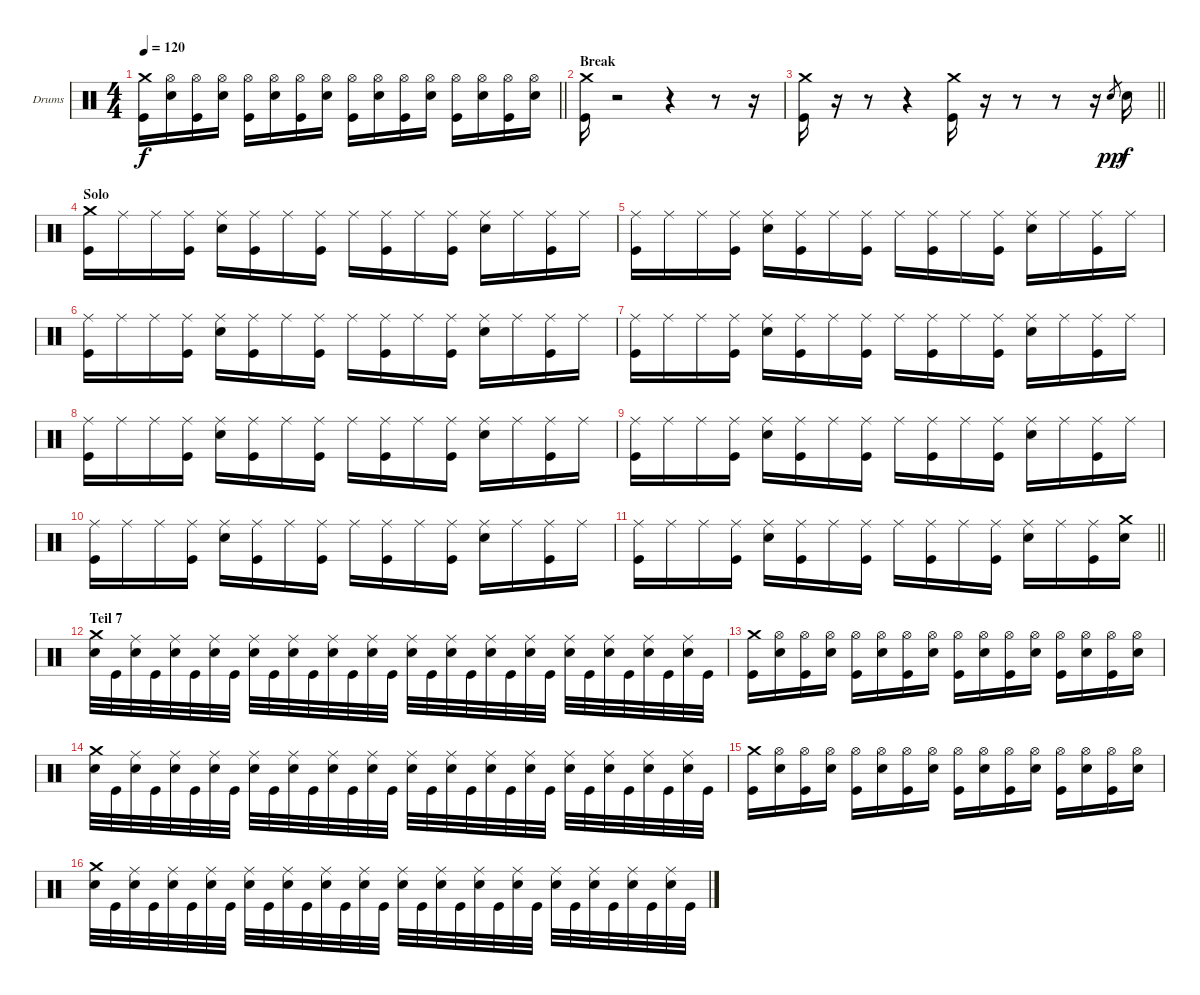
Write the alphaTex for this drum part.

\bracketExtendMode groupsimilarinstruments
\firstSystemTrackNameOrientation horizontal
\otherSystemsTrackNameOrientation horizontal
\track ("Drumkit" "Drums") {instrument percussion}
\staff {score}
\articulation defaults
\ts (4 4)
\tempo 120
\clef neutral
\barLineRight lightlight
\ks c
("Crash medium (hit)" "Kick (hit)").16{dy f} ("Hi-Hat (open)" "Snare (hit) 2").16 ("Hi-Hat (open)" "Kick (hit)").16 ("Hi-Hat (open)" "Snare (hit) 2").16 ("Hi-Hat (open)" "Kick (hit)").16 ("Hi-Hat (open)" "Snare (hit) 2").16 ("Hi-Hat (open)" "Kick (hit)").16 ("Hi-Hat (open)" "Snare (hit) 2").16 ("Hi-Hat (open)" "Kick (hit)").16 ("Hi-Hat (open)" "Snare (hit) 2").16 ("Hi-Hat (open)" "Kick (hit)").16 ("Hi-Hat (open)" "Snare (hit) 2").16 ("Hi-Hat (open)" "Kick (hit)").16 ("Hi-Hat (open)" "Snare (hit) 2").16 ("Hi-Hat (open)" "Kick (hit)").16 ("Hi-Hat (open)" "Snare (hit) 2").16 |
\section ("" "Break")
("Crash medium (hit)" "Kick (hit)").16 r.2 r.4 r.8 r.16 |
\barLineRight lightlight
("Crash medium (hit)" "Kick (hit)").16 r.16 r.8 r.4 ("Crash medium (hit)" "Kick (hit)").16 r.16 r.8 r.8 r.16 "Snare (hit) 2".8{gr dy pp} "Snare (hit) 2".16{dy f} |
\section ("" "Solo")
("Crash medium (hit)" "Kick (hit)").16 "Ride (middle)".16 "Ride (middle)".16 ("Ride (middle)" "Kick (hit)").16 ("Ride (middle)" "Snare (hit) 2").16 ("Ride (middle)" "Kick (hit)").16 "Ride (middle)".16 ("Ride (middle)" "Kick (hit)").16 "Ride (middle)".16 ("Ride (middle)" "Kick (hit)").16 "Ride (middle)".16 ("Ride (middle)" "Kick (hit)").16 ("Ride (middle)" "Snare (hit) 2").16 "Ride (middle)".16 ("Ride (middle)" "Kick (hit)").16 "Ride (middle)".16 |
("Ride (middle)" "Kick (hit)").16 "Ride (middle)".16 "Ride (middle)".16 ("Ride (middle)" "Kick (hit)").16 ("Ride (middle)" "Snare (hit) 2").16 ("Ride (middle)" "Kick (hit)").16 "Ride (middle)".16 ("Ride (middle)" "Kick (hit)").16 "Ride (middle)".16 ("Ride (middle)" "Kick (hit)").16 "Ride (middle)".16 ("Ride (middle)" "Kick (hit)").16 ("Ride (middle)" "Snare (hit) 2").16 "Ride (middle)".16 ("Ride (middle)" "Kick (hit)").16 "Ride (middle)".16 |
("Ride (middle)" "Kick (hit)").16 "Ride (middle)".16 "Ride (middle)".16 ("Ride (middle)" "Kick (hit)").16 ("Ride (middle)" "Snare (hit) 2").16 ("Ride (middle)" "Kick (hit)").16 "Ride (middle)".16 ("Ride (middle)" "Kick (hit)").16 "Ride (middle)".16 ("Ride (middle)" "Kick (hit)").16 "Ride (middle)".16 ("Ride (middle)" "Kick (hit)").16 ("Ride (middle)" "Snare (hit) 2").16 "Ride (middle)".16 ("Ride (middle)" "Kick (hit)").16 "Ride (middle)".16 |
("Ride (middle)" "Kick (hit)").16 "Ride (middle)".16 "Ride (middle)".16 ("Ride (middle)" "Kick (hit)").16 ("Ride (middle)" "Snare (hit) 2").16 ("Ride (middle)" "Kick (hit)").16 "Ride (middle)".16 ("Ride (middle)" "Kick (hit)").16 "Ride (middle)".16 ("Ride (middle)" "Kick (hit)").16 "Ride (middle)".16 ("Ride (middle)" "Kick (hit)").16 ("Ride (middle)" "Snare (hit) 2").16 "Ride (middle)".16 ("Ride (middle)" "Kick (hit)").16 "Ride (middle)".16 |
("Ride (middle)" "Kick (hit)").16 "Ride (middle)".16 "Ride (middle)".16 ("Ride (middle)" "Kick (hit)").16 ("Ride (middle)" "Snare (hit) 2").16 ("Ride (middle)" "Kick (hit)").16 "Ride (middle)".16 ("Ride (middle)" "Kick (hit)").16 "Ride (middle)".16 ("Ride (middle)" "Kick (hit)").16 "Ride (middle)".16 ("Ride (middle)" "Kick (hit)").16 ("Ride (middle)" "Snare (hit) 2").16 "Ride (middle)".16 ("Ride (middle)" "Kick (hit)").16 "Ride (middle)".16 |
("Ride (middle)" "Kick (hit)").16 "Ride (middle)".16 "Ride (middle)".16 ("Ride (middle)" "Kick (hit)").16 ("Ride (middle)" "Snare (hit) 2").16 ("Ride (middle)" "Kick (hit)").16 "Ride (middle)".16 ("Ride (middle)" "Kick (hit)").16 "Ride (middle)".16 ("Ride (middle)" "Kick (hit)").16 "Ride (middle)".16 ("Ride (middle)" "Kick (hit)").16 ("Ride (middle)" "Snare (hit) 2").16 "Ride (middle)".16 ("Ride (middle)" "Kick (hit)").16 "Ride (middle)".16 |
("Ride (middle)" "Kick (hit)").16 "Ride (middle)".16 "Ride (middle)".16 ("Ride (middle)" "Kick (hit)").16 ("Ride (middle)" "Snare (hit) 2").16 ("Ride (middle)" "Kick (hit)").16 "Ride (middle)".16 ("Ride (middle)" "Kick (hit)").16 "Ride (middle)".16 ("Ride (middle)" "Kick (hit)").16 "Ride (middle)".16 ("Ride (middle)" "Kick (hit)").16 ("Ride (middle)" "Snare (hit) 2").16 "Ride (middle)".16 ("Ride (middle)" "Kick (hit)").16 "Ride (middle)".16 |
\barLineRight lightlight
("Ride (middle)" "Kick (hit)").16 "Ride (middle)".16 "Ride (middle)".16 ("Ride (middle)" "Kick (hit)").16 ("Ride (middle)" "Snare (hit) 2").16 ("Ride (middle)" "Kick (hit)").16 "Ride (middle)".16 ("Ride (middle)" "Kick (hit)").16 "Ride (middle)".16 ("Ride (middle)" "Kick (hit)").16 "Ride (middle)".16 ("Ride (middle)" "Kick (hit)").16 ("Ride (middle)" "Snare (hit) 2").16 "Ride (middle)".16 ("Ride (middle)" "Kick (hit)").16 ("Crash medium (hit)" "Snare (hit) 2").16 |
\section ("" "Teil 7")
("Crash medium (hit)" "Snare (hit) 2").32 "Kick (hit)".32 ("Ride (middle)" "Snare (hit) 2").32 "Kick (hit)".32 ("Ride (middle)" "Snare (hit) 2").32 "Kick (hit)".32 ("Ride (middle)" "Snare (hit) 2").32 "Kick (hit)".32 ("Ride (middle)" "Snare (hit) 2").32 "Kick (hit)".32 ("Ride (middle)" "Snare (hit) 2").32 "Kick (hit)".32 ("Ride (middle)" "Snare (hit) 2").32 "Kick (hit)".32 ("Ride (middle)" "Snare (hit) 2").32 "Kick (hit)".32 ("Ride (middle)" "Snare (hit) 2").32 "Kick (hit)".32 ("Ride (middle)" "Snare (hit) 2").32 "Kick (hit)".32 ("Ride (middle)" "Snare (hit) 2").32 "Kick (hit)".32 ("Ride (middle)" "Snare (hit) 2").32 "Kick (hit)".32 ("Ride (middle)" "Snare (hit) 2").32 "Kick (hit)".32 ("Ride (middle)" "Snare (hit) 2").32 "Kick (hit)".32 ("Ride (middle)" "Snare (hit) 2").32 "Kick (hit)".32 ("Ride (middle)" "Snare (hit) 2").32 "Kick (hit)".32 |
("Crash medium (hit)" "Kick (hit)").16 ("Hi-Hat (open)" "Snare (hit) 2").16 ("Hi-Hat (open)" "Kick (hit)").16 ("Hi-Hat (open)" "Snare (hit) 2").16 ("Hi-Hat (open)" "Kick (hit)").16 ("Hi-Hat (open)" "Snare (hit) 2").16 ("Hi-Hat (open)" "Kick (hit)").16 ("Hi-Hat (open)" "Snare (hit) 2").16 ("Hi-Hat (open)" "Kick (hit)").16 ("Hi-Hat (open)" "Snare (hit) 2").16 ("Hi-Hat (open)" "Kick (hit)").16 ("Hi-Hat (open)" "Snare (hit) 2").16 ("Hi-Hat (open)" "Kick (hit)").16 ("Hi-Hat (open)" "Snare (hit) 2").16 ("Hi-Hat (open)" "Kick (hit)").16 ("Hi-Hat (open)" "Snare (hit) 2").16 |
("Crash medium (hit)" "Snare (hit) 2").32 "Kick (hit)".32 ("Ride (middle)" "Snare (hit) 2").32 "Kick (hit)".32 ("Ride (middle)" "Snare (hit) 2").32 "Kick (hit)".32 ("Ride (middle)" "Snare (hit) 2").32 "Kick (hit)".32 ("Ride (middle)" "Snare (hit) 2").32 "Kick (hit)".32 ("Ride (middle)" "Snare (hit) 2").32 "Kick (hit)".32 ("Ride (middle)" "Snare (hit) 2").32 "Kick (hit)".32 ("Ride (middle)" "Snare (hit) 2").32 "Kick (hit)".32 ("Ride (middle)" "Snare (hit) 2").32 "Kick (hit)".32 ("Ride (middle)" "Snare (hit) 2").32 "Kick (hit)".32 ("Ride (middle)" "Snare (hit) 2").32 "Kick (hit)".32 ("Ride (middle)" "Snare (hit) 2").32 "Kick (hit)".32 ("Ride (middle)" "Snare (hit) 2").32 "Kick (hit)".32 ("Ride (middle)" "Snare (hit) 2").32 "Kick (hit)".32 ("Ride (middle)" "Snare (hit) 2").32 "Kick (hit)".32 ("Ride (middle)" "Snare (hit) 2").32 "Kick (hit)".32 |
("Crash medium (hit)" "Kick (hit)").16 ("Hi-Hat (open)" "Snare (hit) 2").16 ("Hi-Hat (open)" "Kick (hit)").16 ("Hi-Hat (open)" "Snare (hit) 2").16 ("Hi-Hat (open)" "Kick (hit)").16 ("Hi-Hat (open)" "Snare (hit) 2").16 ("Hi-Hat (open)" "Kick (hit)").16 ("Hi-Hat (open)" "Snare (hit) 2").16 ("Hi-Hat (open)" "Kick (hit)").16 ("Hi-Hat (open)" "Snare (hit) 2").16 ("Hi-Hat (open)" "Kick (hit)").16 ("Hi-Hat (open)" "Snare (hit) 2").16 ("Hi-Hat (open)" "Kick (hit)").16 ("Hi-Hat (open)" "Snare (hit) 2").16 ("Hi-Hat (open)" "Kick (hit)").16 ("Hi-Hat (open)" "Snare (hit) 2").16 |
("Crash medium (hit)" "Snare (hit) 2").32 "Kick (hit)".32 ("Ride (middle)" "Snare (hit) 2").32 "Kick (hit)".32 ("Ride (middle)" "Snare (hit) 2").32 "Kick (hit)".32 ("Ride (middle)" "Snare (hit) 2").32 "Kick (hit)".32 ("Ride (middle)" "Snare (hit) 2").32 "Kick (hit)".32 ("Ride (middle)" "Snare (hit) 2").32 "Kick (hit)".32 ("Ride (middle)" "Snare (hit) 2").32 "Kick (hit)".32 ("Ride (middle)" "Snare (hit) 2").32 "Kick (hit)".32 ("Ride (middle)" "Snare (hit) 2").32 "Kick (hit)".32 ("Ride (middle)" "Snare (hit) 2").32 "Kick (hit)".32 ("Ride (middle)" "Snare (hit) 2").32 "Kick (hit)".32 ("Ride (middle)" "Snare (hit) 2").32 "Kick (hit)".32 ("Ride (middle)" "Snare (hit) 2").32 "Kick (hit)".32 ("Ride (middle)" "Snare (hit) 2").32 "Kick (hit)".32 ("Ride (middle)" "Snare (hit) 2").32 "Kick (hit)".32 ("Ride (middle)" "Snare (hit) 2").32 "Kick (hit)".32
